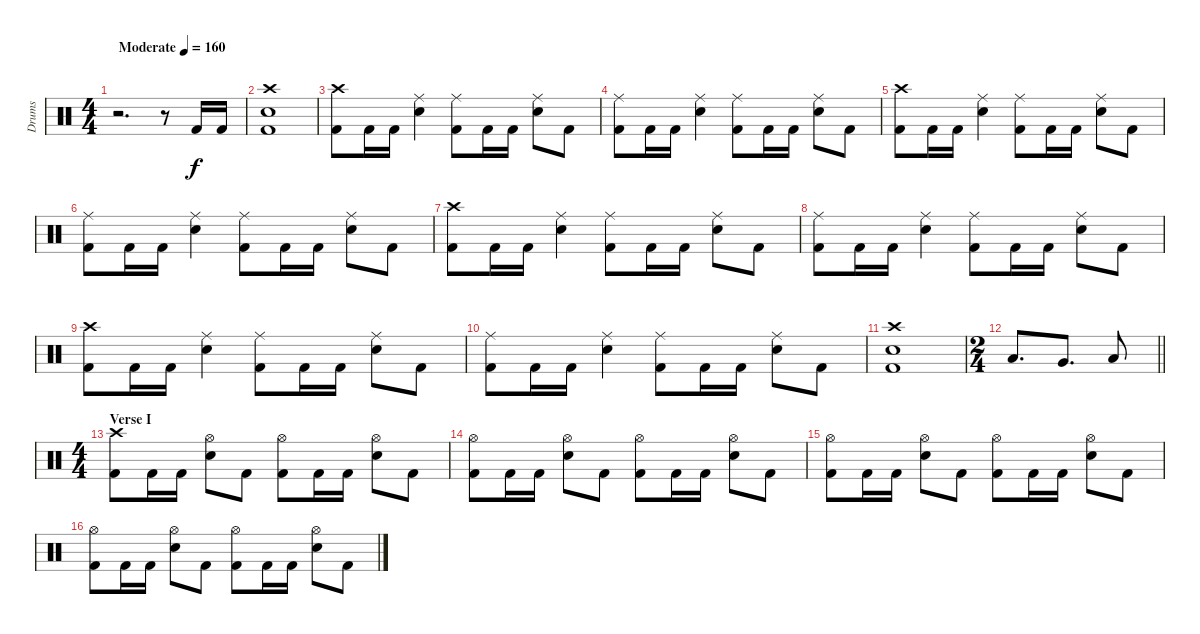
\track ("Drums" "Drums") {instrument percussion}
\staff {score}
\articulation defaults
\ts (4 4)
\tempo (160 "Moderate")
\clef neutral
\ks c
r.2{d dy f} r.8 "Kick (hit) 2".16 "Kick (hit) 2".16 |
("Crash high (hit)" "Snare (hit) 2" "Kick (hit) 2").1 |
("Crash high (hit)" "Kick (hit) 2").8 "Kick (hit) 2".16 "Kick (hit) 2".16 ("Ride (middle)" "Snare (hit) 2").4 ("Ride (middle)" "Kick (hit) 2").8 "Kick (hit) 2".16 "Kick (hit) 2".16 ("Ride (middle)" "Snare (hit) 2").8 "Kick (hit) 2".8 |
("Ride (middle)" "Kick (hit) 2").8 "Kick (hit) 2".16 "Kick (hit) 2".16 ("Ride (middle)" "Snare (hit) 2").4 ("Ride (middle)" "Kick (hit) 2").8 "Kick (hit) 2".16 "Kick (hit) 2".16 ("Ride (middle)" "Snare (hit) 2").8 "Kick (hit) 2".8 |
("Crash high (hit)" "Kick (hit) 2").8 "Kick (hit) 2".16 "Kick (hit) 2".16 ("Ride (middle)" "Snare (hit) 2").4 ("Ride (middle)" "Kick (hit) 2").8 "Kick (hit) 2".16 "Kick (hit) 2".16 ("Ride (middle)" "Snare (hit) 2").8 "Kick (hit) 2".8 |
("Ride (middle)" "Kick (hit) 2").8 "Kick (hit) 2".16 "Kick (hit) 2".16 ("Ride (middle)" "Snare (hit) 2").4 ("Ride (middle)" "Kick (hit) 2").8 "Kick (hit) 2".16 "Kick (hit) 2".16 ("Ride (middle)" "Snare (hit) 2").8 "Kick (hit) 2".8 |
("Crash high (hit)" "Kick (hit) 2").8 "Kick (hit) 2".16 "Kick (hit) 2".16 ("Ride (middle)" "Snare (hit) 2").4 ("Ride (middle)" "Kick (hit) 2").8 "Kick (hit) 2".16 "Kick (hit) 2".16 ("Ride (middle)" "Snare (hit) 2").8 "Kick (hit) 2".8 |
("Ride (middle)" "Kick (hit) 2").8 "Kick (hit) 2".16 "Kick (hit) 2".16 ("Ride (middle)" "Snare (hit) 2").4 ("Ride (middle)" "Kick (hit) 2").8 "Kick (hit) 2".16 "Kick (hit) 2".16 ("Ride (middle)" "Snare (hit) 2").8 "Kick (hit) 2".8 |
("Crash high (hit)" "Kick (hit) 2").8 "Kick (hit) 2".16 "Kick (hit) 2".16 ("Ride (middle)" "Snare (hit) 2").4 ("Ride (middle)" "Kick (hit) 2").8 "Kick (hit) 2".16 "Kick (hit) 2".16 ("Ride (middle)" "Snare (hit) 2").8 "Kick (hit) 2".8 |
("Ride (middle)" "Kick (hit) 2").8 "Kick (hit) 2".16 "Kick (hit) 2".16 ("Ride (middle)" "Snare (hit) 2").4 ("Ride (middle)" "Kick (hit) 2").8 "Kick (hit) 2".16 "Kick (hit) 2".16 ("Ride (middle)" "Snare (hit) 2").8 "Kick (hit) 2".8 |
("Crash high (hit)" "Snare (hit) 2" "Kick (hit) 2").1 |
\ts (2 4)
\barLineRight lightlight "Low Tom (hit)".8{d} "Very Low Tom (hit)".8{d} "Low Floor Tom (hit)".8
|
\ts (4 4)
\section ("" "Verse I")
("Crash high (hit)" "Kick (hit) 2").8 "Kick (hit) 2".16 "Kick (hit) 2".16 ("Hi-Hat (open)" "Snare (hit) 2").8 "Kick (hit) 2".8 ("Hi-Hat (open)" "Kick (hit) 2").8 "Kick (hit) 2".16 "Kick (hit) 2".16 ("Hi-Hat (open)" "Snare (hit) 2").8 "Kick (hit) 2".8 |
("Hi-Hat (open)" "Kick (hit) 2").8 "Kick (hit) 2".16 "Kick (hit) 2".16 ("Hi-Hat (open)" "Snare (hit) 2").8 "Kick (hit) 2".8 ("Hi-Hat (open)" "Kick (hit) 2").8 "Kick (hit) 2".16 "Kick (hit) 2".16 ("Hi-Hat (open)" "Snare (hit) 2").8 "Kick (hit) 2".8 |
("Hi-Hat (open)" "Kick (hit) 2").8 "Kick (hit) 2".16 "Kick (hit) 2".16 ("Hi-Hat (open)" "Snare (hit) 2").8 "Kick (hit) 2".8 ("Hi-Hat (open)" "Kick (hit) 2").8 "Kick (hit) 2".16 "Kick (hit) 2".16 ("Hi-Hat (open)" "Snare (hit) 2").8 "Kick (hit) 2".8 |
("Hi-Hat (open)" "Kick (hit) 2").8 "Kick (hit) 2".16 "Kick (hit) 2".16 ("Hi-Hat (open)" "Snare (hit) 2").8 "Kick (hit) 2".8 ("Hi-Hat (open)" "Kick (hit) 2").8 "Kick (hit) 2".16 "Kick (hit) 2".16 ("Hi-Hat (open)" "Snare (hit) 2").8 "Kick (hit) 2".8
